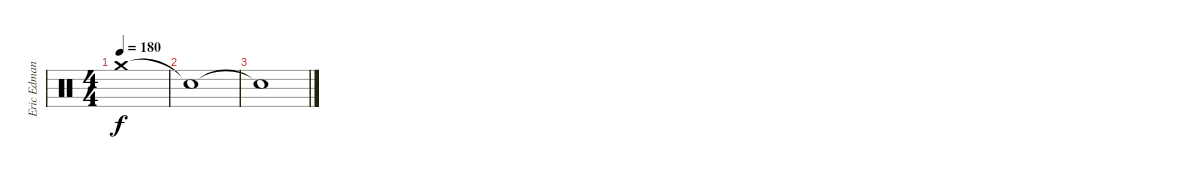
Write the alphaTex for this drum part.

\track ("Eric Edman - Drums" "Eric Edman") {instrument percussion}
\staff {score}
\articulation defaults
\ts (4 4)
\tempo 180
\clef neutral
\ks c "Crash medium (hit)".1{dy f}
|
"Snare (hit)"{t}.1 |
"Snare (hit)"{t}.1
